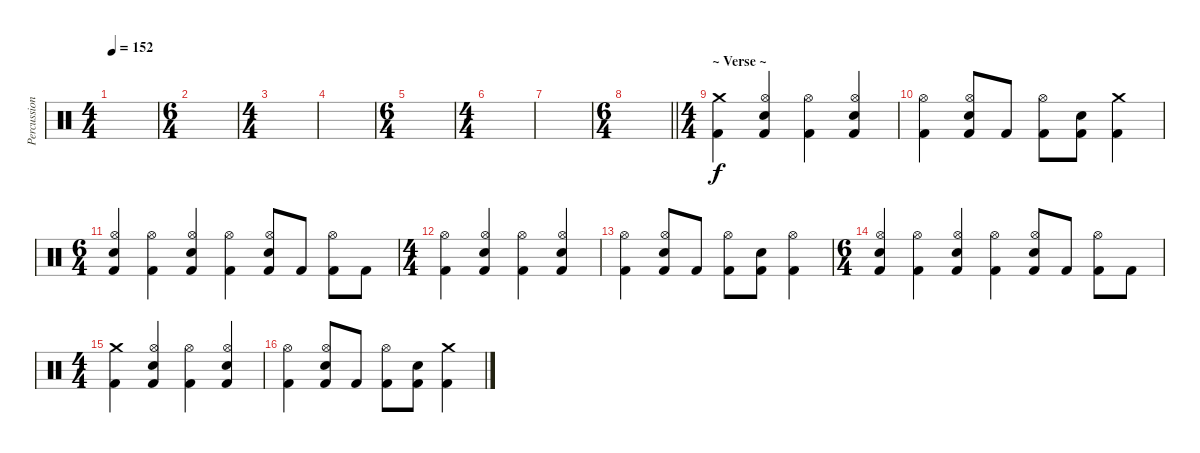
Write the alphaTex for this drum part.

\track ("Percussion" "Percussion") {instrument percussion}
\staff {score}
\articulation defaults
\ts (4 4)
\tempo 152
\clef neutral
\ks c
|
\ts (6 4)
|
\ts (4 4)
|
|
\ts (6 4)
|
\ts (4 4)
|
|
\ts (6 4)
\barLineRight lightlight
|
\ts (4 4)
\section ("" "~ Verse ~")
("Crash medium (hit)" "Kick (hit) 2").4 ("Hi-Hat (open)" "Electric Snare (hit)" "Kick (hit) 2").4 ("Hi-Hat (open)" "Kick (hit) 2").4 ("Hi-Hat (open)" "Electric Snare (hit)" "Kick (hit) 2").4 |
("Hi-Hat (open)" "Kick (hit) 2").4 ("Hi-Hat (open)" "Electric Snare (hit)" "Kick (hit) 2").8 "Kick (hit) 2".8 ("Hi-Hat (open)" "Kick (hit) 2").8 ("Electric Snare (hit)" "Kick (hit) 2").8 ("Crash medium (hit)" "Kick (hit) 2").4 |
\ts (6 4)
("Hi-Hat (open)" "Electric Snare (hit)" "Kick (hit) 2").4 ("Hi-Hat (open)" "Kick (hit) 2").4 ("Hi-Hat (open)" "Electric Snare (hit)" "Kick (hit) 2").4 ("Hi-Hat (open)" "Kick (hit) 2").4 ("Hi-Hat (open)" "Electric Snare (hit)" "Kick (hit) 2").8 "Kick (hit) 2".8 ("Hi-Hat (open)" "Kick (hit) 2").8 "Kick (hit) 2".8 |
\ts (4 4)
("Hi-Hat (open)" "Kick (hit) 2").4 ("Hi-Hat (open)" "Electric Snare (hit)" "Kick (hit) 2").4 ("Hi-Hat (open)" "Kick (hit) 2").4 ("Hi-Hat (open)" "Electric Snare (hit)" "Kick (hit) 2").4 |
("Hi-Hat (open)" "Kick (hit) 2").4 ("Hi-Hat (open)" "Electric Snare (hit)" "Kick (hit) 2").8 "Kick (hit) 2".8 ("Hi-Hat (open)" "Kick (hit) 2").8 ("Electric Snare (hit)" "Kick (hit) 2").8 ("Hi-Hat (open)" "Kick (hit) 2").4 |
\ts (6 4)
("Hi-Hat (open)" "Electric Snare (hit)" "Kick (hit) 2").4 ("Hi-Hat (open)" "Kick (hit) 2").4 ("Hi-Hat (open)" "Electric Snare (hit)" "Kick (hit) 2").4 ("Hi-Hat (open)" "Kick (hit) 2").4 ("Hi-Hat (open)" "Electric Snare (hit)" "Kick (hit) 2").8 "Kick (hit) 2".8 ("Hi-Hat (open)" "Kick (hit) 2").8 "Kick (hit) 2".8 |
\ts (4 4)
("Crash medium (hit)" "Kick (hit) 2").4 ("Hi-Hat (open)" "Electric Snare (hit)" "Kick (hit) 2").4 ("Hi-Hat (open)" "Kick (hit) 2").4 ("Hi-Hat (open)" "Electric Snare (hit)" "Kick (hit) 2").4 |
("Hi-Hat (open)" "Kick (hit) 2").4 ("Hi-Hat (open)" "Electric Snare (hit)" "Kick (hit) 2").8 "Kick (hit) 2".8 ("Hi-Hat (open)" "Kick (hit) 2").8 ("Electric Snare (hit)" "Kick (hit) 2").8 ("Crash medium (hit)" "Kick (hit) 2").4
